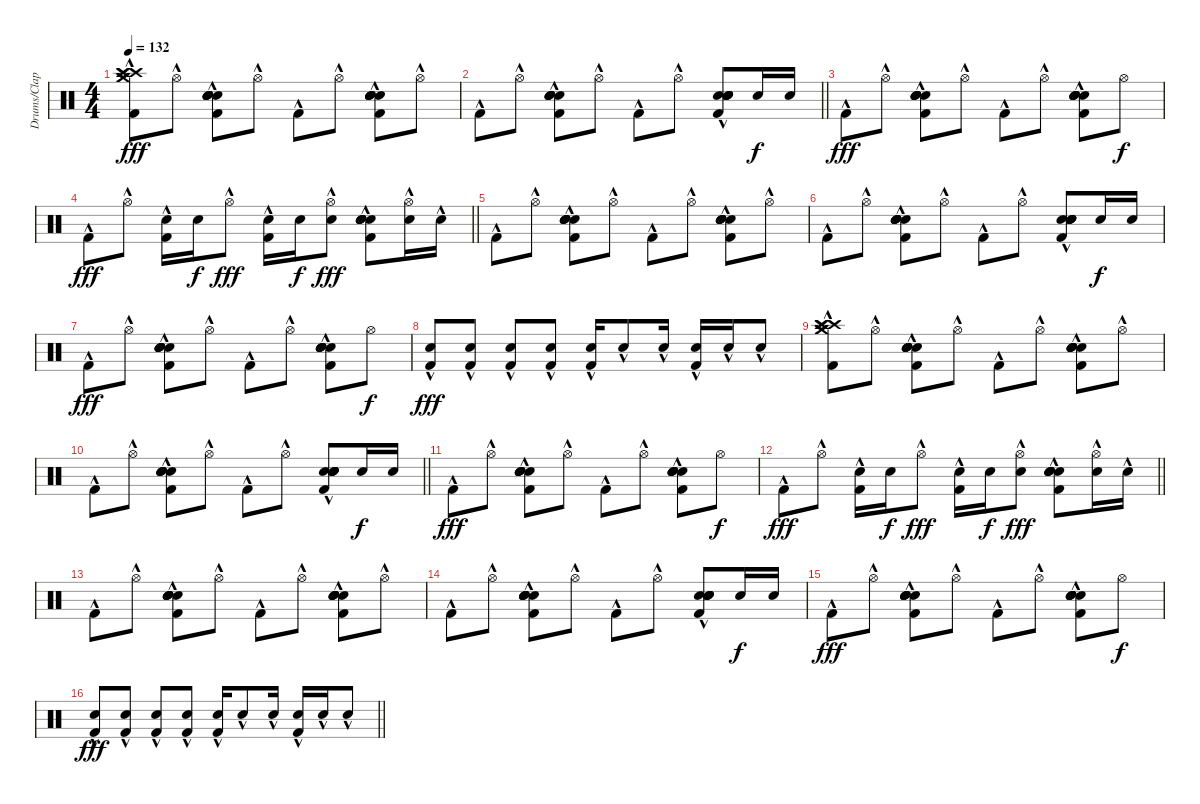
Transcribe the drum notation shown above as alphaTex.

\track ("Drums/Claps" "Drums/Clap") {instrument percussion}
\staff {score}
\articulation defaults
\ts (4 4)
\tempo 132
\clef neutral
\ks c
("Crash high (hit)"{hac} "Crash high (hit)"{hac} "Crash high (hit)"{hac} "Crash medium (hit)"{hac} "Crash medium (hit)"{hac} "Kick (hit) 2"{hac}).8{dy fff} "Hi-Hat (open)"{hac}.8 ("Hand Clap (hit)"{hac} "Hand Clap (hit)"{hac} "Hand Clap (hit)"{hac} "Snare (hit) 2"{hac} "Hand Clap (hit)"{hac} "Kick (hit) 2"{hac}).8 "Hi-Hat (open)"{hac}.8 "Kick (hit) 2"{hac}.8 "Hi-Hat (open)"{hac}.8 ("Hand Clap (hit)"{hac} "Hand Clap (hit)"{hac} "Hand Clap (hit)"{hac} "Snare (hit) 2"{hac} "Hand Clap (hit)"{hac} "Kick (hit) 2"{hac}).8 "Hi-Hat (open)"{hac}.8 |
\barLineRight lightlight "Kick (hit) 2"{hac}.8 "Hi-Hat (open)"{hac}.8
("Hand Clap (hit)"{hac} "Hand Clap (hit)"{hac} "Hand Clap (hit)"{hac} "Snare (hit) 2"{hac} "Hand Clap (hit)"{hac} "Kick (hit) 2"{hac}).8 "Hi-Hat (open)"{hac}.8 "Kick (hit) 2"{hac}.8 "Hi-Hat (open)"{hac}.8 ("Hand Clap (hit)"{hac} "Hand Clap (hit)"{hac} "Hand Clap (hit)"{hac} "Snare (hit) 2"{hac} "Hand Clap (hit)"{hac} "Kick (hit) 2"{hac}).8 "Snare (hit) 2".16{dy f} "Snare (hit) 2".16 |
"Kick (hit) 2"{hac}.8{dy fff} "Hi-Hat (open)"{hac}.8 ("Hand Clap (hit)"{hac} "Hand Clap (hit)"{hac} "Hand Clap (hit)"{hac} "Snare (hit) 2"{hac} "Hand Clap (hit)"{hac} "Kick (hit) 2"{hac}).8 "Hi-Hat (open)"{hac}.8 "Kick (hit) 2"{hac}.8 "Hi-Hat (open)"{hac}.8 ("Hand Clap (hit)"{hac} "Hand Clap (hit)"{hac} "Hand Clap (hit)"{hac} "Snare (hit) 2"{hac} "Hand Clap (hit)"{hac} "Kick (hit) 2"{hac}).8 "Hi-Hat (open)".8{dy f} |
\barLineRight lightlight "Kick (hit) 2"{hac}.8{dy fff} "Hi-Hat (open)"{hac}.8
("Snare (hit) 2"{hac} "Kick (hit) 2"{hac}).16 "Snare (hit) 2".16{dy f} "Hi-Hat (open)"{hac}.8{dy fff} ("Snare (hit) 2" "Kick (hit) 2"{hac}).16 "Snare (hit) 2".16{dy f} ("Hi-Hat (open)"{hac} "Snare (hit) 2"{hac}).8{dy fff} ("Hand Clap (hit)"{hac} "Hand Clap (hit)"{hac} "Hand Clap (hit)"{hac} "Snare (hit) 2"{hac} "Hand Clap (hit)"{hac} "Kick (hit) 2"{hac}).8 ("Hi-Hat (open)" "Snare (hit) 2"{hac}).16 "Snare (hit) 2"{hac}.16 |
"Kick (hit) 2"{hac}.8 "Hi-Hat (open)"{hac}.8 ("Hand Clap (hit)"{hac} "Hand Clap (hit)"{hac} "Hand Clap (hit)"{hac} "Snare (hit) 2"{hac} "Hand Clap (hit)"{hac} "Kick (hit) 2"{hac}).8 "Hi-Hat (open)"{hac}.8 "Kick (hit) 2"{hac}.8 "Hi-Hat (open)"{hac}.8 ("Hand Clap (hit)"{hac} "Hand Clap (hit)"{hac} "Hand Clap (hit)"{hac} "Snare (hit) 2"{hac} "Hand Clap (hit)"{hac} "Kick (hit) 2"{hac}).8 "Hi-Hat (open)"{hac}.8 |
"Kick (hit) 2"{hac}.8 "Hi-Hat (open)"{hac}.8 ("Hand Clap (hit)"{hac} "Hand Clap (hit)"{hac} "Hand Clap (hit)"{hac} "Snare (hit) 2"{hac} "Hand Clap (hit)"{hac} "Kick (hit) 2"{hac}).8 "Hi-Hat (open)"{hac}.8 "Kick (hit) 2"{hac}.8 "Hi-Hat (open)"{hac}.8 ("Hand Clap (hit)"{hac} "Hand Clap (hit)"{hac} "Hand Clap (hit)"{hac} "Snare (hit) 2"{hac} "Hand Clap (hit)"{hac} "Kick (hit) 2"{hac}).8 "Snare (hit) 2".16{dy f} "Snare (hit) 2".16 |
"Kick (hit) 2"{hac}.8{dy fff} "Hi-Hat (open)"{hac}.8 ("Hand Clap (hit)"{hac} "Hand Clap (hit)"{hac} "Hand Clap (hit)"{hac} "Snare (hit) 2"{hac} "Hand Clap (hit)"{hac} "Kick (hit) 2"{hac}).8 "Hi-Hat (open)"{hac}.8 "Kick (hit) 2"{hac}.8 "Hi-Hat (open)"{hac}.8 ("Hand Clap (hit)"{hac} "Hand Clap (hit)"{hac} "Hand Clap (hit)"{hac} "Snare (hit) 2"{hac} "Hand Clap (hit)"{hac} "Kick (hit) 2"{hac}).8 "Hi-Hat (open)".8{dy f} |
("Snare (hit) 2"{hac} "Kick (hit) 2").8{dy fff} ("Snare (hit) 2"{hac} "Kick (hit) 2").8 ("Snare (hit) 2"{hac} "Kick (hit) 2").8 ("Snare (hit) 2"{hac} "Kick (hit) 2").8 ("Snare (hit) 2"{hac} "Kick (hit) 2").16 "Snare (hit) 2"{hac}.8 "Snare (hit) 2"{hac}.16 ("Snare (hit) 2"{hac} "Kick (hit) 2").16 "Snare (hit) 2"{hac}.16 "Snare (hit) 2"{hac}.8 |
("Crash high (hit)"{hac} "Crash high (hit)"{hac} "Crash high (hit)"{hac} "Crash medium (hit)"{hac} "Crash medium (hit)"{hac} "Kick (hit) 2"{hac}).8 "Hi-Hat (open)"{hac}.8 ("Hand Clap (hit)"{hac} "Hand Clap (hit)"{hac} "Hand Clap (hit)"{hac} "Snare (hit) 2"{hac} "Hand Clap (hit)"{hac} "Kick (hit) 2"{hac}).8 "Hi-Hat (open)"{hac}.8 "Kick (hit) 2"{hac}.8 "Hi-Hat (open)"{hac}.8 ("Hand Clap (hit)"{hac} "Hand Clap (hit)"{hac} "Hand Clap (hit)"{hac} "Snare (hit) 2"{hac} "Hand Clap (hit)"{hac} "Kick (hit) 2"{hac}).8 "Hi-Hat (open)"{hac}.8 |
\barLineRight lightlight "Kick (hit) 2"{hac}.8 "Hi-Hat (open)"{hac}.8
("Hand Clap (hit)"{hac} "Hand Clap (hit)"{hac} "Hand Clap (hit)"{hac} "Snare (hit) 2"{hac} "Hand Clap (hit)"{hac} "Kick (hit) 2"{hac}).8 "Hi-Hat (open)"{hac}.8 "Kick (hit) 2"{hac}.8 "Hi-Hat (open)"{hac}.8 ("Hand Clap (hit)"{hac} "Hand Clap (hit)"{hac} "Hand Clap (hit)"{hac} "Snare (hit) 2"{hac} "Hand Clap (hit)"{hac} "Kick (hit) 2"{hac}).8 "Snare (hit) 2".16{dy f} "Snare (hit) 2".16 |
"Kick (hit) 2"{hac}.8{dy fff} "Hi-Hat (open)"{hac}.8 ("Hand Clap (hit)"{hac} "Hand Clap (hit)"{hac} "Hand Clap (hit)"{hac} "Snare (hit) 2"{hac} "Hand Clap (hit)"{hac} "Kick (hit) 2"{hac}).8 "Hi-Hat (open)"{hac}.8 "Kick (hit) 2"{hac}.8 "Hi-Hat (open)"{hac}.8 ("Hand Clap (hit)"{hac} "Hand Clap (hit)"{hac} "Hand Clap (hit)"{hac} "Snare (hit) 2"{hac} "Hand Clap (hit)"{hac} "Kick (hit) 2"{hac}).8 "Hi-Hat (open)".8{dy f} |
\barLineRight lightlight "Kick (hit) 2"{hac}.8{dy fff} "Hi-Hat (open)"{hac}.8
("Snare (hit) 2"{hac} "Kick (hit) 2"{hac}).16 "Snare (hit) 2".16{dy f} "Hi-Hat (open)"{hac}.8{dy fff} ("Snare (hit) 2" "Kick (hit) 2"{hac}).16 "Snare (hit) 2".16{dy f} ("Hi-Hat (open)"{hac} "Snare (hit) 2"{hac}).8{dy fff} ("Hand Clap (hit)"{hac} "Hand Clap (hit)"{hac} "Hand Clap (hit)"{hac} "Snare (hit) 2"{hac} "Hand Clap (hit)"{hac} "Kick (hit) 2"{hac}).8 ("Hi-Hat (open)" "Snare (hit) 2"{hac}).16 "Snare (hit) 2"{hac}.16 |
"Kick (hit) 2"{hac}.8 "Hi-Hat (open)"{hac}.8 ("Hand Clap (hit)"{hac} "Hand Clap (hit)"{hac} "Hand Clap (hit)"{hac} "Snare (hit) 2"{hac} "Hand Clap (hit)"{hac} "Kick (hit) 2"{hac}).8 "Hi-Hat (open)"{hac}.8 "Kick (hit) 2"{hac}.8 "Hi-Hat (open)"{hac}.8 ("Hand Clap (hit)"{hac} "Hand Clap (hit)"{hac} "Hand Clap (hit)"{hac} "Snare (hit) 2"{hac} "Hand Clap (hit)"{hac} "Kick (hit) 2"{hac}).8 "Hi-Hat (open)"{hac}.8 |
"Kick (hit) 2"{hac}.8 "Hi-Hat (open)"{hac}.8 ("Hand Clap (hit)"{hac} "Hand Clap (hit)"{hac} "Hand Clap (hit)"{hac} "Snare (hit) 2"{hac} "Hand Clap (hit)"{hac} "Kick (hit) 2"{hac}).8 "Hi-Hat (open)"{hac}.8 "Kick (hit) 2"{hac}.8 "Hi-Hat (open)"{hac}.8 ("Hand Clap (hit)"{hac} "Hand Clap (hit)"{hac} "Hand Clap (hit)"{hac} "Snare (hit) 2"{hac} "Hand Clap (hit)"{hac} "Kick (hit) 2"{hac}).8 "Snare (hit) 2".16{dy f} "Snare (hit) 2".16 |
"Kick (hit) 2"{hac}.8{dy fff} "Hi-Hat (open)"{hac}.8 ("Hand Clap (hit)"{hac} "Hand Clap (hit)"{hac} "Hand Clap (hit)"{hac} "Snare (hit) 2"{hac} "Hand Clap (hit)"{hac} "Kick (hit) 2"{hac}).8 "Hi-Hat (open)"{hac}.8 "Kick (hit) 2"{hac}.8 "Hi-Hat (open)"{hac}.8 ("Hand Clap (hit)"{hac} "Hand Clap (hit)"{hac} "Hand Clap (hit)"{hac} "Snare (hit) 2"{hac} "Hand Clap (hit)"{hac} "Kick (hit) 2"{hac}).8 "Hi-Hat (open)".8{dy f} |
\barLineRight lightlight
("Snare (hit) 2"{hac} "Kick (hit) 2").8{dy fff} ("Snare (hit) 2"{hac} "Kick (hit) 2").8 ("Snare (hit) 2"{hac} "Kick (hit) 2").8 ("Snare (hit) 2"{hac} "Kick (hit) 2").8 ("Snare (hit) 2"{hac} "Kick (hit) 2").16 "Snare (hit) 2"{hac}.8 "Snare (hit) 2"{hac}.16 ("Snare (hit) 2"{hac} "Kick (hit) 2").16 "Snare (hit) 2"{hac}.16 "Snare (hit) 2"{hac}.8
